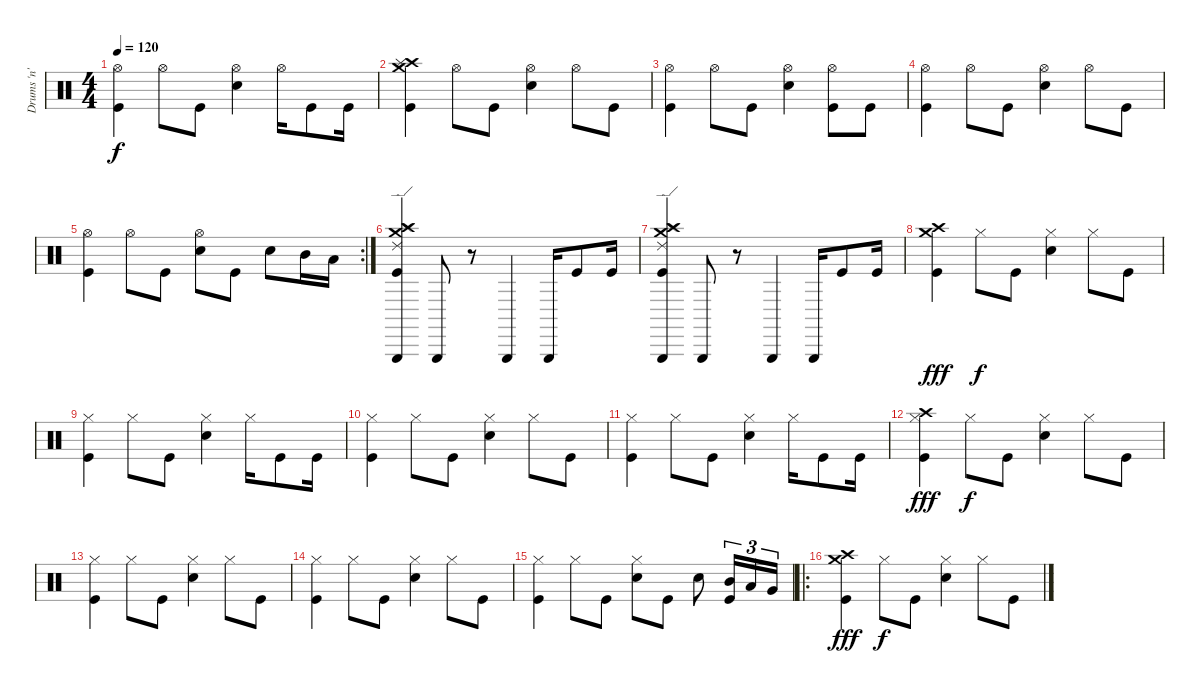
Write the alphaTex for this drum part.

\track ("Drums 'n' Such" "Drums 'n' ") {instrument percussion}
\staff {score}
\articulation defaults
\ts (4 4)
\tempo 120
\clef neutral
\ks c
("Hi-Hat (open)" "Kick (hit)").4{dy f} "Hi-Hat (open)".8 "Kick (hit)".8 ("Hi-Hat (open)" "Snare (hit) 2").4 "Hi-Hat (open)".16 "Kick (hit)".8 "Kick (hit)".16 |
("Crash high (hit)" "Crash medium (hit)" "Splash (hit)" "Kick (hit)").4 "Hi-Hat (open)".8 "Kick (hit)".8 ("Hi-Hat (open)" "Snare (hit) 2").4 "Hi-Hat (open)".8 "Kick (hit)".8 |
("Hi-Hat (open)" "Kick (hit)").4 "Hi-Hat (open)".8 "Kick (hit)".8 ("Hi-Hat (open)" "Snare (hit) 2").4 ("Hi-Hat (open)" "Kick (hit)").8 "Kick (hit)".8 |
("Hi-Hat (open)" "Kick (hit)").4 "Hi-Hat (open)".8 "Kick (hit)".8 ("Hi-Hat (open)" "Snare (hit) 2").4 "Hi-Hat (open)".8 "Kick (hit)".8 |
\rc 2
("Hi-Hat (open)" "Kick (hit)").4 "Hi-Hat (open)".8 "Kick (hit)".8 ("Hi-Hat (open)" "Snare (hit) 2").8 "Kick (hit)".8 "Snare (hit) 2".8 "Mid Tom (hit)".16 "Low Tom (hit)".16 |
("Crash high (hit)" "Crash medium (hit)" "Splash (hit)" "Kick (hit)" "Triangle (hit)" "Ride (edge) 2").4 "Triangle (hit)".8 r.8 "Triangle (hit)".4 "Triangle (hit)".16 "Kick (hit)".8 "Kick (hit)".16 |
("Crash high (hit)" "Crash medium (hit)" "Splash (hit)" "Kick (hit)" "Triangle (hit)" "Ride (edge) 2").4 "Triangle (hit)".8 r.8 "Triangle (hit)".4 "Triangle (hit)".16 "Kick (hit)".8 "Kick (hit)".16 |
("Crash high (hit)" "Crash medium (hit)" "Kick (hit)").4{dy fff} "Hi-Hat (closed)".8{dy f} "Kick (hit)".8 ("Hi-Hat (closed)" "Snare (hit) 2").4 "Hi-Hat (closed)".8 "Kick (hit)".8 |
("Hi-Hat (closed)" "Kick (hit)").4 "Hi-Hat (closed)".8 "Kick (hit)".8 ("Hi-Hat (closed)" "Snare (hit) 2").4 "Hi-Hat (closed)".16 "Kick (hit)".8 "Kick (hit)".16 |
("Hi-Hat (closed)" "Kick (hit)").4 "Hi-Hat (closed)".8 "Kick (hit)".8 ("Hi-Hat (closed)" "Snare (hit) 2").4 "Hi-Hat (closed)".8 "Kick (hit)".8 |
("Hi-Hat (closed)" "Kick (hit)").4 "Hi-Hat (closed)".8 "Kick (hit)".8 ("Hi-Hat (closed)" "Snare (hit) 2").4 "Hi-Hat (closed)".16 "Kick (hit)".8 "Kick (hit)".16 |
("Hi-Hat (closed)" "Crash high (hit)" "Kick (hit)").4{dy fff} "Hi-Hat (closed)".8{dy f} "Kick (hit)".8 ("Hi-Hat (closed)" "Snare (hit) 2").4 "Hi-Hat (closed)".8 "Kick (hit)".8 |
("Hi-Hat (closed)" "Kick (hit)").4 "Hi-Hat (closed)".8 "Kick (hit)".8 ("Hi-Hat (closed)" "Snare (hit) 2").4 "Hi-Hat (closed)".8 "Kick (hit)".8 |
("Hi-Hat (closed)" "Kick (hit)").4 "Hi-Hat (closed)".8 "Kick (hit)".8 ("Hi-Hat (closed)" "Snare (hit) 2").4 "Hi-Hat (closed)".8 "Kick (hit)".8 |
("Hi-Hat (closed)" "Kick (hit)").4 "Hi-Hat (closed)".8 "Kick (hit)".8 ("Hi-Hat (closed)" "Snare (hit) 2").8 "Kick (hit)".8 "Snare (hit) 2".8 ("Kick (hit)" "Mid Tom (hit)").16{tu (3 2)} "Low Tom (hit)".16{tu (3 2)} "Very Low Tom (hit)".16{tu (3 2)} |
\ro
("Crash high (hit)" "Crash medium (hit)" "Kick (hit)").4{dy fff} "Hi-Hat (closed)".8{dy f} "Kick (hit)".8 ("Hi-Hat (closed)" "Snare (hit) 2").4 "Hi-Hat (closed)".8 "Kick (hit)".8
